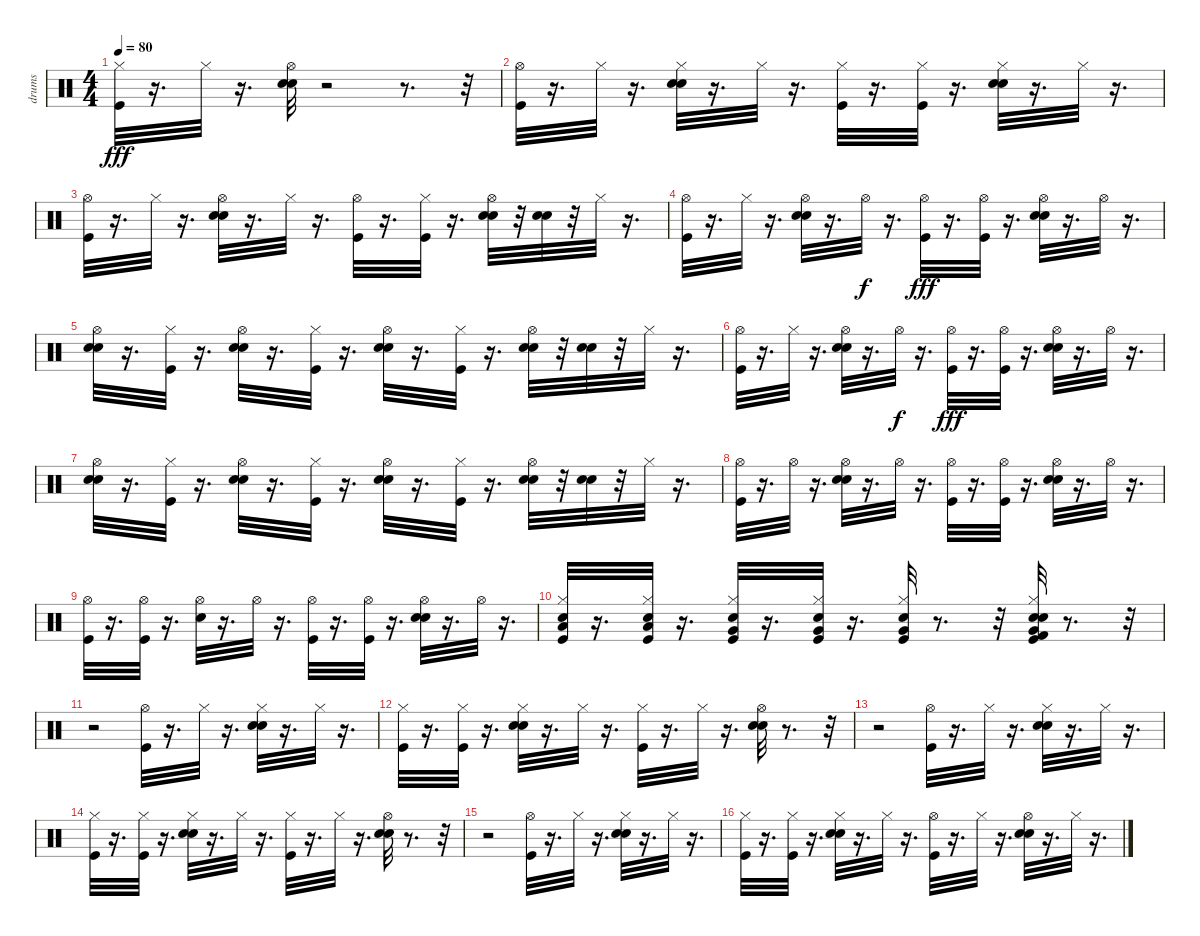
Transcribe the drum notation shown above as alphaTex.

\track ("drums" "drums") {instrument percussion}
\staff {score}
\articulation defaults
\ts (4 4)
\tempo 80
\clef neutral
\ks c
("Kick (hit)" "Hi-Hat (closed)").32{dy fff} r.16{d} "Hi-Hat (closed)".32 r.16{d} ("Snare (hit) 2" "Electric Snare (hit)" "Hi-Hat (open)").32 r.2 r.8{d} r.32 |
("Kick (hit)" "Hi-Hat (open)").32 r.16{d} "Hi-Hat (closed)".32 r.16{d} ("Snare (hit) 2" "Electric Snare (hit)" "Hi-Hat (closed)").32 r.16{d} "Hi-Hat (closed)".32 r.16{d} ("Kick (hit)" "Hi-Hat (closed)").32 r.16{d} ("Kick (hit)" "Hi-Hat (closed)").32 r.16{d} ("Snare (hit) 2" "Electric Snare (hit)" "Hi-Hat (closed)").32 r.16{d} "Hi-Hat (closed)".32 r.16{d} |
("Kick (hit)" "Hi-Hat (open)").32 r.16{d} "Hi-Hat (closed)".32 r.16{d} ("Snare (hit) 2" "Electric Snare (hit)" "Hi-Hat (open)").32 r.16{d} "Hi-Hat (closed)".32 r.16{d} ("Hi-Hat (open)" "Kick (hit)").32 r.16{d} ("Hi-Hat (closed)" "Kick (hit)").32 r.16{d} ("Hi-Hat (open)" "Snare (hit) 2" "Electric Snare (hit)").32 r.32 ("Electric Snare (hit)" "Snare (hit) 2").32 r.32 "Hi-Hat (closed)".32 r.16{d} |
("Hi-Hat (open)" "Kick (hit)").32 r.16{d} "Hi-Hat (closed)".32 r.16{d} ("Snare (hit) 2" "Electric Snare (hit)" "Hi-Hat (open)").32 r.16{d} "Hi-Hat (open)".32{dy f} r.16{d} ("Kick (hit)" "Hi-Hat (open)").32{dy fff} r.16{d} ("Kick (hit)" "Hi-Hat (open)").32 r.16{d} ("Snare (hit) 2" "Electric Snare (hit)" "Hi-Hat (open)").32 r.16{d} "Hi-Hat (open)".32 r.16{d} |
("Hi-Hat (open)" "Snare (hit) 2" "Electric Snare (hit)").32 r.16{d} ("Hi-Hat (closed)" "Kick (hit)").32 r.16{d} ("Snare (hit) 2" "Electric Snare (hit)" "Hi-Hat (open)").32 r.16{d} ("Hi-Hat (closed)" "Kick (hit)").32 r.16{d} ("Hi-Hat (open)" "Snare (hit) 2" "Electric Snare (hit)").32 r.16{d} ("Hi-Hat (closed)" "Kick (hit)").32 r.16{d} ("Hi-Hat (open)" "Snare (hit) 2" "Electric Snare (hit)").32 r.32 ("Electric Snare (hit)" "Snare (hit) 2").32 r.32 "Hi-Hat (closed)".32 r.16{d} |
("Kick (hit)" "Hi-Hat (open)").32 r.16{d} "Hi-Hat (closed)".32 r.16{d} ("Snare (hit) 2" "Electric Snare (hit)" "Hi-Hat (open)").32 r.16{d} "Hi-Hat (open)".32{dy f} r.16{d} ("Kick (hit)" "Hi-Hat (open)").32{dy fff} r.16{d} ("Kick (hit)" "Hi-Hat (open)").32 r.16{d} ("Snare (hit) 2" "Electric Snare (hit)" "Hi-Hat (open)").32 r.16{d} "Hi-Hat (open)".32 r.16{d} |
("Hi-Hat (open)" "Snare (hit) 2" "Electric Snare (hit)").32 r.16{d} ("Hi-Hat (closed)" "Kick (hit)").32 r.16{d} ("Snare (hit) 2" "Electric Snare (hit)" "Hi-Hat (open)").32 r.16{d} ("Hi-Hat (closed)" "Kick (hit)").32 r.16{d} ("Hi-Hat (open)" "Snare (hit) 2" "Electric Snare (hit)").32 r.16{d} ("Hi-Hat (closed)" "Kick (hit)").32 r.16{d} ("Hi-Hat (open)" "Snare (hit) 2" "Electric Snare (hit)").32 r.32 ("Electric Snare (hit)" "Snare (hit) 2").32 r.32 "Hi-Hat (closed)".32 r.16{d} |
("Hi-Hat (open)" "Kick (hit)").32 r.16{d} "Hi-Hat (open)".32 r.16{d} ("Hi-Hat (open)" "Snare (hit) 2" "Electric Snare (hit)").32 r.16{d} "Hi-Hat (open)".32 r.16{d} ("Hi-Hat (open)" "Kick (hit)").32 r.16{d} ("Hi-Hat (open)" "Kick (hit)").32 r.16{d} ("Hi-Hat (open)" "Snare (hit) 2" "Electric Snare (hit)").32 r.16{d} "Hi-Hat (open)".32 r.16{d} |
("Kick (hit)" "Hi-Hat (open)").32 r.16{d} ("Kick (hit)" "Hi-Hat (open)").32 r.16{d} ("Snare (hit) 2" "Hi-Hat (open)").32 r.16{d} "Hi-Hat (open)".32 r.16{d} ("Kick (hit)" "Hi-Hat (open)").32 r.16{d} ("Kick (hit)" "Hi-Hat (open)").32 r.16{d} ("Snare (hit) 2" "Electric Snare (hit)" "Hi-Hat (open)").32 r.16{d} "Hi-Hat (open)".32 r.16{d} |
("Hi-Hat (closed)" "Snare (hit) 2" "Low Tom (hit)" "Kick (hit)").32 r.16{d} ("Hi-Hat (closed)" "Snare (hit) 2" "Low Tom (hit)" "Kick (hit)").32 r.16{d} ("Hi-Hat (closed)" "Snare (hit) 2" "Very Low Tom (hit)" "Kick (hit)").32 r.16{d} ("Hi-Hat (closed)" "Snare (hit) 2" "Very Low Tom (hit)" "Kick (hit)").32 r.16{d} ("Hi-Hat (closed)" "Snare (hit) 2" "Very Low Tom (hit)" "Kick (hit)").32 r.8{d} r.32 ("Hi-Hat (closed)" "Snare (hit) 2" "Very Low Tom (hit)" "Electric Snare (hit)" "Kick (hit)" "Kick (hit) 2").32 r.8{d} r.32 |
r.2 ("Hi-Hat (open)" "Kick (hit)").32 r.16{d} "Hi-Hat (closed)".32 r.16{d} ("Snare (hit) 2" "Electric Snare (hit)" "Hi-Hat (closed)").32 r.16{d} "Hi-Hat (closed)".32 r.16{d} |
("Kick (hit)" "Hi-Hat (closed)").32 r.16{d} ("Kick (hit)" "Hi-Hat (closed)").32 r.16{d} ("Snare (hit) 2" "Electric Snare (hit)" "Hi-Hat (closed)").32 r.16{d} "Hi-Hat (closed)".32 r.16{d} ("Kick (hit)" "Hi-Hat (closed)").32 r.16{d} "Hi-Hat (closed)".32 r.16{d} ("Snare (hit) 2" "Electric Snare (hit)" "Hi-Hat (open)").32 r.8{d} r.32 |
r.2 ("Hi-Hat (open)" "Kick (hit)").32 r.16{d} "Hi-Hat (closed)".32 r.16{d} ("Snare (hit) 2" "Electric Snare (hit)" "Hi-Hat (closed)").32 r.16{d} "Hi-Hat (closed)".32 r.16{d} |
("Kick (hit)" "Hi-Hat (closed)").32 r.16{d} ("Kick (hit)" "Hi-Hat (closed)").32 r.16{d} ("Snare (hit) 2" "Electric Snare (hit)" "Hi-Hat (closed)").32 r.16{d} "Hi-Hat (closed)".32 r.16{d} ("Kick (hit)" "Hi-Hat (closed)").32 r.16{d} "Hi-Hat (closed)".32 r.16{d} ("Snare (hit) 2" "Electric Snare (hit)" "Hi-Hat (open)").32 r.8{d} r.32 |
r.2 ("Kick (hit)" "Hi-Hat (open)").32 r.16{d} "Hi-Hat (closed)".32 r.16{d} ("Snare (hit) 2" "Electric Snare (hit)" "Hi-Hat (closed)").32 r.16{d} "Hi-Hat (closed)".32 r.16{d} |
("Kick (hit)" "Hi-Hat (closed)").32 r.16{d} ("Kick (hit)" "Hi-Hat (closed)").32 r.16{d} ("Snare (hit) 2" "Electric Snare (hit)" "Hi-Hat (closed)").32 r.16{d} "Hi-Hat (closed)".32 r.16{d} ("Kick (hit)" "Hi-Hat (open)").32 r.16{d} "Hi-Hat (closed)".32 r.16{d} ("Snare (hit) 2" "Electric Snare (hit)" "Hi-Hat (open)").32 r.16{d} "Hi-Hat (closed)".32 r.16{d}
